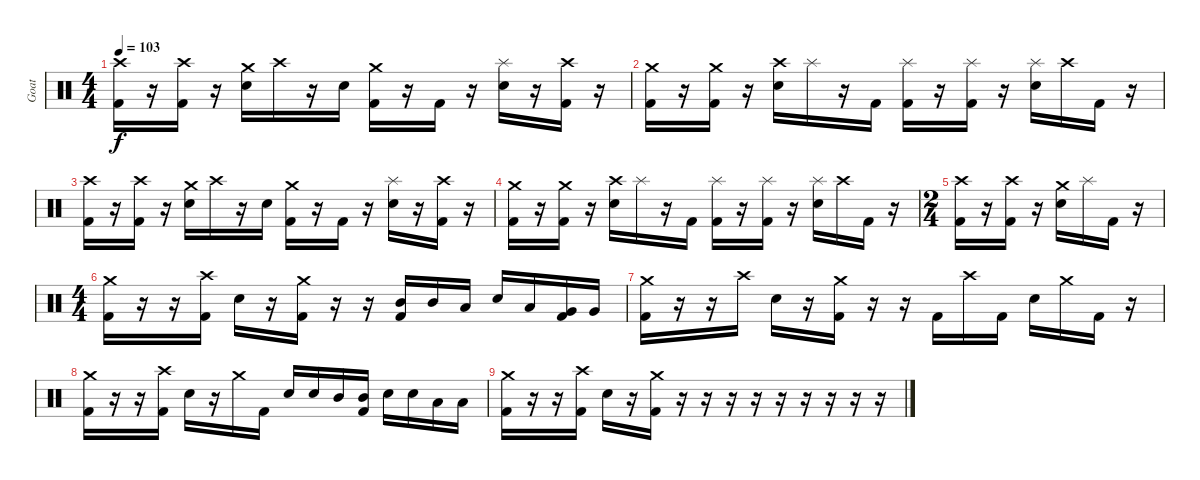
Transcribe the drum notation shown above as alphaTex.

\track ("Goat" "Goat") {instrument percussion}
\staff {score}
\articulation defaults
\ts (4 4)
\tempo 103
\clef neutral
\ks c
("Crash high (hit)" "Kick (hit) 2").16{dy f} r.16 ("Crash high (hit)" "Kick (hit) 2").16 r.16 ("Crash medium (hit)" "Electric Snare (hit)").16 "Crash high (hit)".16 r.16 "Electric Snare (hit)".16 ("Crash medium (hit)" "Kick (hit) 2").16 r.16 "Kick (hit) 2".16 r.16 ("Splash (hit)" "Electric Snare (hit)").16 r.16 ("Crash high (hit)" "Kick (hit) 2").16 r.16 |
("Crash medium (hit)" "Kick (hit) 2").16 r.16 ("Crash medium (hit)" "Kick (hit) 2").16 r.16 ("Crash high (hit)" "Electric Snare (hit)").16 "Splash (hit)".16 r.16 "Kick (hit) 2".16 ("Splash (hit)" "Kick (hit) 2").16 r.16 ("Splash (hit)" "Kick (hit) 2").16 r.16 ("Splash (hit)" "Electric Snare (hit)").16 "Crash high (hit)".16 "Kick (hit) 2".16 r.16 |
("Crash high (hit)" "Kick (hit) 2").16 r.16 ("Crash high (hit)" "Kick (hit) 2").16 r.16 ("Crash medium (hit)" "Electric Snare (hit)").16 "Crash high (hit)".16 r.16 "Electric Snare (hit)".16 ("Crash medium (hit)" "Kick (hit) 2").16 r.16 "Kick (hit) 2".16 r.16 ("Splash (hit)" "Electric Snare (hit)").16 r.16 ("Crash high (hit)" "Kick (hit) 2").16 r.16 |
("Crash medium (hit)" "Kick (hit) 2").16 r.16 ("Crash medium (hit)" "Kick (hit) 2").16 r.16 ("Crash high (hit)" "Electric Snare (hit)").16 "Splash (hit)".16 r.16 "Kick (hit) 2".16 ("Splash (hit)" "Kick (hit) 2").16 r.16 ("Splash (hit)" "Kick (hit) 2").16 r.16 ("Splash (hit)" "Electric Snare (hit)").16 "Crash high (hit)".16 "Kick (hit) 2".16 r.16 |
\ts (2 4)
("Crash high (hit)" "Kick (hit) 2").16 r.16 ("Crash high (hit)" "Kick (hit) 2").16 r.16 ("Crash medium (hit)" "Electric Snare (hit)").16 "Splash (hit)".16 "Kick (hit) 2".16 r.16 |
\ts (4 4)
("Crash medium (hit)" "Kick (hit) 2").16 r.16 r.16 ("Crash high (hit)" "Kick (hit) 2").16 "Electric Snare (hit)".16 r.16 ("Crash medium (hit)" "Kick (hit) 2").16 r.16 r.16 ("Mid Tom (hit)" "Kick (hit) 2").16 "Mid Tom (hit)".16 "Low Tom (hit)".16 "Electric Snare (hit)".16 "Low Tom (hit)".16 ("Very Low Tom (hit)" "Kick (hit) 2").16 "Very Low Tom (hit)".16 |
("Crash medium (hit)" "Kick (hit) 2").16 r.16 r.16 "Crash high (hit)".16 "Electric Snare (hit)".16 r.16 ("Crash medium (hit)" "Kick (hit) 2").16 r.16 r.16 "Kick (hit) 2".16 "Crash high (hit)".16 "Kick (hit) 2".16 "Electric Snare (hit)".16 "Crash medium (hit)".16 "Kick (hit) 2".16 r.16 |
("Crash medium (hit)" "Kick (hit) 2").16 r.16 r.16 ("Crash high (hit)" "Kick (hit) 2").16 "Electric Snare (hit)".16 r.16 "Crash medium (hit)".16 "Kick (hit) 2".16 "Electric Snare (hit)".16 "Electric Snare (hit)".16 "Mid Tom (hit)".16 ("Mid Tom (hit)" "Kick (hit) 2").16 "Electric Snare (hit)".16 "Electric Snare (hit)".16 "Low Tom (hit)".16 "Low Tom (hit)".16 |
("Crash medium (hit)" "Kick (hit) 2").16 r.16 r.16 ("Crash high (hit)" "Kick (hit) 2").16 "Electric Snare (hit)".16 r.16 ("Crash medium (hit)" "Kick (hit) 2").16 r.16 r.16 r.16 r.16 r.16 r.16 r.16 r.16 r.16
